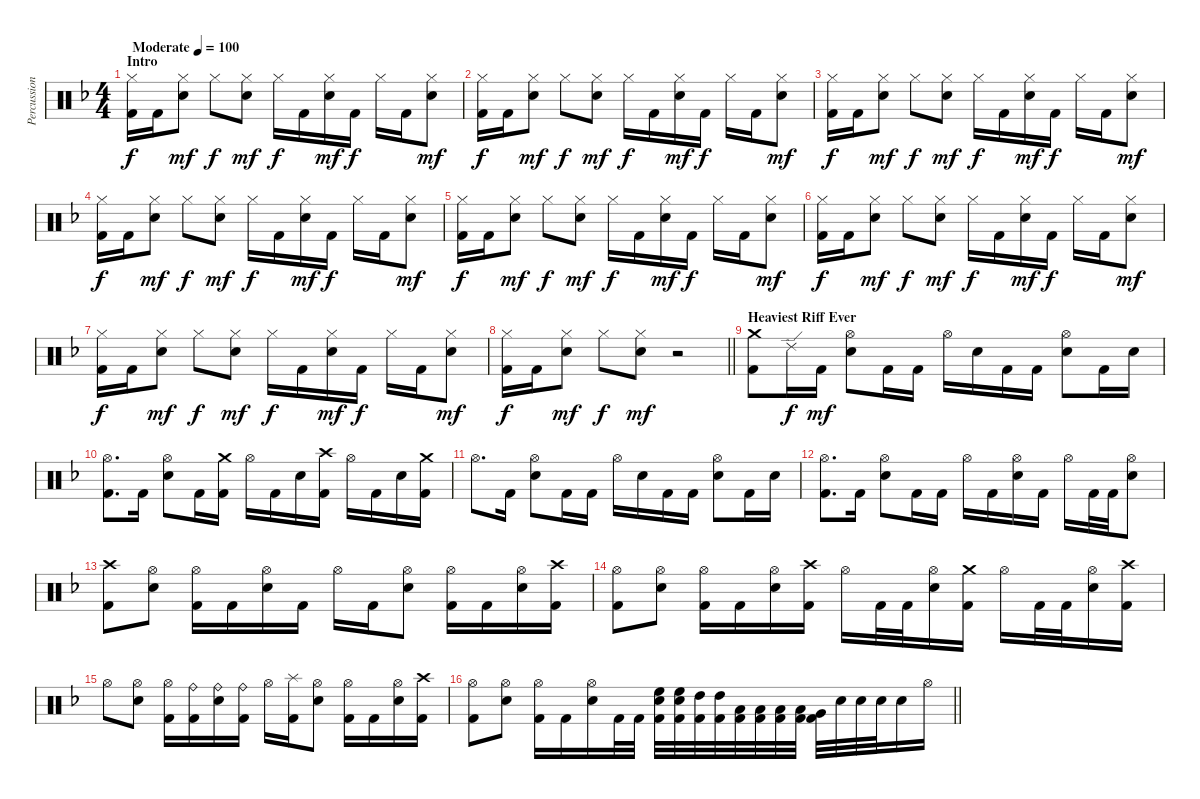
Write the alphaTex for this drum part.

\track ("Percussion" "Percussion") {instrument percussion}
\staff {score}
\articulation defaults
\ts (4 4)
\section ("" "Intro")
\tempo (100 "Moderate")
\clef neutral
\ks dminor
("Hi-Hat (closed)" "Kick (hit) 2").16{dy f} "Kick (hit) 2".16 ("Hi-Hat (closed)" "Snare (hit) 2").8{dy mf} "Hi-Hat (closed)".8{dy f} ("Hi-Hat (closed)" "Snare (hit) 2").8{dy mf} "Hi-Hat (closed)".16{dy f} "Kick (hit) 2".16 ("Hi-Hat (closed)" "Snare (hit) 2").16{dy mf} "Kick (hit) 2".16{dy f} "Hi-Hat (closed)".16 "Kick (hit) 2".16 ("Hi-Hat (closed)" "Snare (hit) 2").8{dy mf} |
("Hi-Hat (closed)" "Kick (hit) 2").16{dy f} "Kick (hit) 2".16 ("Hi-Hat (closed)" "Snare (hit) 2").8{dy mf} "Hi-Hat (closed)".8{dy f} ("Hi-Hat (closed)" "Snare (hit) 2").8{dy mf} "Hi-Hat (closed)".16{dy f} "Kick (hit) 2".16 ("Hi-Hat (closed)" "Snare (hit) 2").16{dy mf} "Kick (hit) 2".16{dy f} "Hi-Hat (closed)".16 "Kick (hit) 2".16 ("Hi-Hat (closed)" "Snare (hit) 2").8{dy mf} |
("Hi-Hat (closed)" "Kick (hit) 2").16{dy f} "Kick (hit) 2".16 ("Hi-Hat (closed)" "Snare (hit) 2").8{dy mf} "Hi-Hat (closed)".8{dy f} ("Hi-Hat (closed)" "Snare (hit) 2").8{dy mf} "Hi-Hat (closed)".16{dy f} "Kick (hit) 2".16 ("Hi-Hat (closed)" "Snare (hit) 2").16{dy mf} "Kick (hit) 2".16{dy f} "Hi-Hat (closed)".16 "Kick (hit) 2".16 ("Hi-Hat (closed)" "Snare (hit) 2").8{dy mf} |
("Hi-Hat (closed)" "Kick (hit) 2").16{dy f} "Kick (hit) 2".16 ("Hi-Hat (closed)" "Snare (hit) 2").8{dy mf} "Hi-Hat (closed)".8{dy f} ("Hi-Hat (closed)" "Snare (hit) 2").8{dy mf} "Hi-Hat (closed)".16{dy f} "Kick (hit) 2".16 ("Hi-Hat (closed)" "Snare (hit) 2").16{dy mf} "Kick (hit) 2".16{dy f} "Hi-Hat (closed)".16 "Kick (hit) 2".16 ("Hi-Hat (closed)" "Snare (hit) 2").8{dy mf} |
("Hi-Hat (closed)" "Kick (hit) 2").16{dy f} "Kick (hit) 2".16 ("Hi-Hat (closed)" "Snare (hit) 2").8{dy mf} "Hi-Hat (closed)".8{dy f} ("Hi-Hat (closed)" "Snare (hit) 2").8{dy mf} "Hi-Hat (closed)".16{dy f} "Kick (hit) 2".16 ("Hi-Hat (closed)" "Snare (hit) 2").16{dy mf} "Kick (hit) 2".16{dy f} "Hi-Hat (closed)".16 "Kick (hit) 2".16 ("Hi-Hat (closed)" "Snare (hit) 2").8{dy mf} |
("Hi-Hat (closed)" "Kick (hit) 2").16{dy f} "Kick (hit) 2".16 ("Hi-Hat (closed)" "Snare (hit) 2").8{dy mf} "Hi-Hat (closed)".8{dy f} ("Hi-Hat (closed)" "Snare (hit) 2").8{dy mf} "Hi-Hat (closed)".16{dy f} "Kick (hit) 2".16 ("Hi-Hat (closed)" "Snare (hit) 2").16{dy mf} "Kick (hit) 2".16{dy f} "Hi-Hat (closed)".16 "Kick (hit) 2".16 ("Hi-Hat (closed)" "Snare (hit) 2").8{dy mf} |
("Hi-Hat (closed)" "Kick (hit) 2").16{dy f} "Kick (hit) 2".16 ("Hi-Hat (closed)" "Snare (hit) 2").8{dy mf} "Hi-Hat (closed)".8{dy f} ("Hi-Hat (closed)" "Snare (hit) 2").8{dy mf} "Hi-Hat (closed)".16{dy f} "Kick (hit) 2".16 ("Hi-Hat (closed)" "Snare (hit) 2").16{dy mf} "Kick (hit) 2".16{dy f} "Hi-Hat (closed)".16 "Kick (hit) 2".16 ("Hi-Hat (closed)" "Snare (hit) 2").8{dy mf} |
\barLineRight lightlight
("Hi-Hat (closed)" "Kick (hit) 2").16{dy f} "Kick (hit) 2".16 ("Hi-Hat (closed)" "Snare (hit) 2").8{dy mf} "Hi-Hat (closed)".8{dy f} ("Hi-Hat (closed)" "Snare (hit) 2").8{dy mf} r.2 |
\section ("" "Heaviest Riff Ever")
("Crash medium (hit)" "Kick (hit) 2").8 "Ride (edge) 2".16{dy f} "Kick (hit) 2".16{dy mf} ("Hi-Hat (open)" "Snare (hit) 2").8 "Kick (hit) 2".16 "Kick (hit) 2".16 "Hi-Hat (open)".16 "Snare (hit) 2".16 "Kick (hit) 2".16 "Kick (hit) 2".16 ("Hi-Hat (open)" "Snare (hit) 2").8 "Kick (hit) 2".16 "Snare (hit) 2".16 |
("Hi-Hat (open)" "Kick (hit) 2").8{d} "Kick (hit) 2".16 ("Hi-Hat (open)" "Snare (hit) 2").8 "Kick (hit) 2".16 ("Crash medium (hit)" "Kick (hit) 2").16 "Hi-Hat (open)".16 "Kick (hit) 2".16 "Snare (hit) 2".16 ("Crash high (hit)" "Kick (hit) 2").16 "Hi-Hat (open)".16 "Kick (hit) 2".16 "Snare (hit) 2".16 ("Crash medium (hit)" "Kick (hit) 2").16 |
"Hi-Hat (open)".8{d} "Kick (hit) 2".16 ("Hi-Hat (open)" "Snare (hit) 2").8 "Kick (hit) 2".16 "Kick (hit) 2".16 "Hi-Hat (open)".16 "Snare (hit) 2".16 "Kick (hit) 2".16 "Kick (hit) 2".16 ("Hi-Hat (open)" "Snare (hit) 2").8 "Kick (hit) 2".16 "Snare (hit) 2".16 |
("Hi-Hat (open)" "Kick (hit) 2").8{d} "Kick (hit) 2".16 ("Hi-Hat (open)" "Snare (hit) 2").8 "Kick (hit) 2".16 "Kick (hit) 2".16 "Hi-Hat (open)".16 "Kick (hit) 2".16 ("Hi-Hat (open)" "Snare (hit) 2").16 "Kick (hit) 2".16 "Hi-Hat (open)".16 "Kick (hit) 2".32 "Kick (hit) 2".32 ("Hi-Hat (open)" "Snare (hit) 2").8 |
("Crash high (hit)" "Kick (hit) 2").8 ("Hi-Hat (open)" "Snare (hit) 2").8 ("Hi-Hat (open)" "Kick (hit) 2").16 "Kick (hit) 2".16 ("Hi-Hat (open)" "Snare (hit) 2").16 "Kick (hit) 2".16 "Hi-Hat (open)".16 "Kick (hit) 2".16 ("Hi-Hat (open)" "Snare (hit) 2").8 ("Hi-Hat (open)" "Kick (hit) 2").16 "Kick (hit) 2".16 ("Hi-Hat (open)" "Snare (hit) 2").16 ("Crash high (hit)" "Kick (hit) 2").16 |
("Hi-Hat (open)" "Kick (hit) 2").8 ("Hi-Hat (open)" "Snare (hit) 2").8 ("Hi-Hat (open)" "Kick (hit) 2").16 "Kick (hit) 2".16 ("Hi-Hat (open)" "Snare (hit) 2").16 ("Crash high (hit)" "Kick (hit) 2").16 "Hi-Hat (open)".16 "Kick (hit) 2".32 "Kick (hit) 2".32 ("Hi-Hat (open)" "Snare (hit) 2").16 ("Crash medium (hit)" "Kick (hit) 2").16 "Hi-Hat (open)".16 "Kick (hit) 2".32 "Kick (hit) 2".32 ("Hi-Hat (open)" "Snare (hit) 2").16 ("Crash high (hit)" "Kick (hit) 2").16 |
"Hi-Hat (open)".8 ("Hi-Hat (open)" "Snare (hit) 2").8 ("Hi-Hat (open)" "Kick (hit) 2").16 ("Ride (bell)" "Kick (hit) 2").16 ("Ride (bell)" "Snare (hit) 2").16 ("Ride (bell)" "Kick (hit) 2").16 "Hi-Hat (open)".16 ("Splash (hit)" "Kick (hit) 2").16 ("Hi-Hat (open)" "Snare (hit) 2").8 ("Hi-Hat (open)" "Kick (hit) 2").16 "Kick (hit) 2".16 ("Hi-Hat (open)" "Snare (hit) 2").16 ("Crash high (hit)" "Kick (hit) 2").16 |
\barLineRight lightlight
("Hi-Hat (open)" "Kick (hit) 2").8 ("Hi-Hat (open)" "Snare (hit) 2").8 ("Hi-Hat (open)" "Kick (hit) 2").16 "Kick (hit) 2".16 ("Hi-Hat (open)" "Snare (hit) 2").16 "Kick (hit) 2".32 "Kick (hit) 2".32 ("Snare (hit) 2" "High Floor Tom (hit)" "Kick (hit) 2").32 ("Snare (hit) 2" "High Floor Tom (hit)" "Kick (hit) 2").32 ("High Tom (hit)" "Kick (hit) 2").32 ("High Tom (hit)" "Kick (hit) 2").32 ("Low Tom (hit)" "Kick (hit) 2").32 ("Low Tom (hit)" "Kick (hit) 2").32 ("Low Tom (hit)" "Kick (hit) 2").32 ("Low Tom (hit)" "Kick (hit) 2").32 ("Very Low Tom (hit)" "Kick (hit) 2").32 "Snare (hit) 2".32 "Snare (hit) 2".32 "Snare (hit) 2".32 "Snare (hit) 2".16 "Hi-Hat (open)".16
